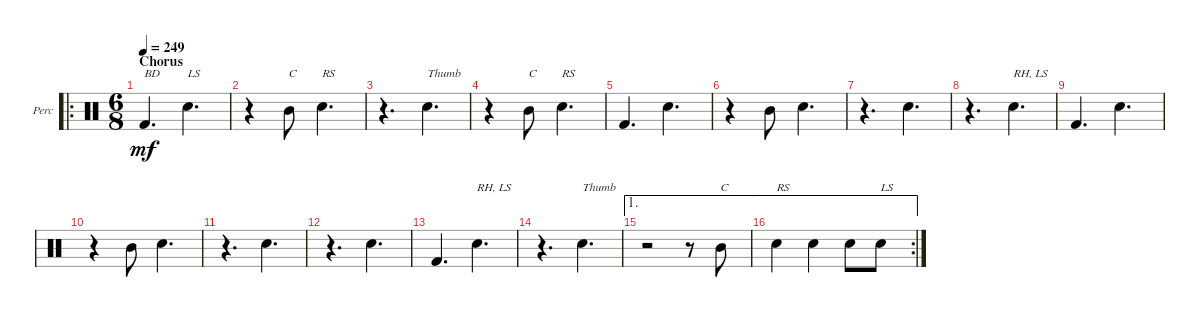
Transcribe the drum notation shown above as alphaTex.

\defaultSystemsLayout 4
\bracketExtendMode groupsimilarinstruments
\firstSystemTrackNameOrientation horizontal
\otherSystemsTrackNameOrientation horizontal
\track ("Percussion" "Perc") {instrument percussion}
\staff {score}
\articulation defaults
\ro
\ts (6 8)
\section ("" "Chorus")
\scale
0.334155
\tempo 249
\accidentals auto
\clef neutral
\ottava regular
\simile none
\ks c "Kick (hit) 2".4{d txt "BD" dy mf} "Snare (hit) 2".4{d txt "LS"}
|
\scale
0.232645 r.4 "Mid Tom (hit)".8{txt "C"} "Snare (hit) 2".4{d txt "RS"} |
\scale
0.21572 r.4{d} "Snare (hit) 2".4{d txt "Thumb"} |
\scale
0.217698 r.4 "Mid Tom (hit)".8{txt "C"} "Snare (hit) 2".4{d txt "RS"} |
\scale
0.270574 "Kick (hit) 2".4{d} "Snare (hit) 2".4{d} |
\scale
0.245163 r.4 "Mid Tom (hit)".8 "Snare (hit) 2".4{d} |
\scale
0.22816 r.4{d} "Snare (hit) 2".4{d} |
\scale
0.256365 r.4{d} "Snare (hit) 2".4{d txt "RH, LS"} |
\scale
0.286062 "Kick (hit) 2".4{d} "Snare (hit) 2".4{d} |
\scale
0.224397 r.4 "Mid Tom (hit)".8 "Snare (hit) 2".4{d} |
\scale
0.221849 r.4{d} "Snare (hit) 2".4{d} |
\scale
0.267561 r.4{d} "Snare (hit) 2".4{d} |
\scale
0.288162 "Kick (hit) 2".4{d} "Snare (hit) 2".4{d txt "RH, LS"} |
\scale
0.222116 r.4{d} "Snare (hit) 2".4{d txt "Thumb"} |
\ae 1
\scale
0.227273 r.2 r.8 "Mid Tom (hit)".8{txt "C"} |
\ae 1
\rc 2
\scale
0.26222 "Snare (hit) 2".4{txt "RS"} "Snare (hit) 2".4 "Snare (hit) 2".8 "Snare (hit) 2".8{txt "LS"}
